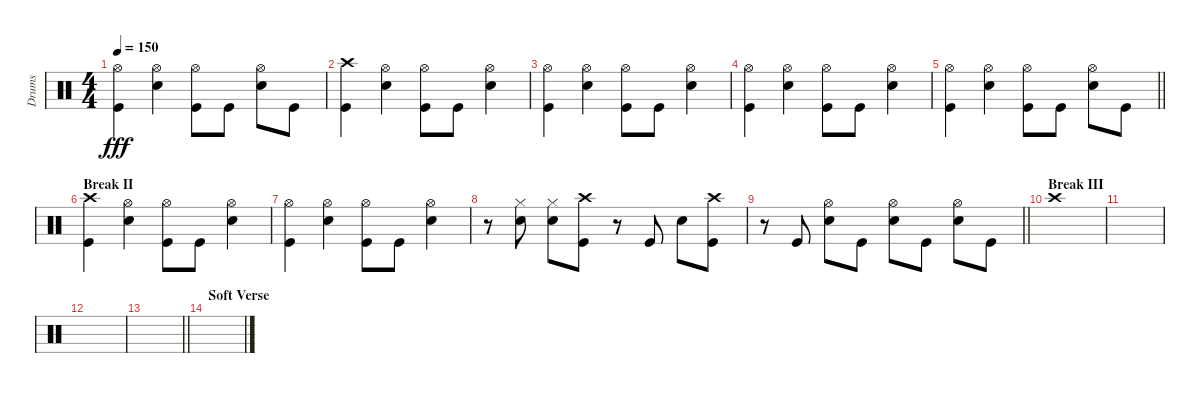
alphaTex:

\track ("Drums" "Drums") {instrument percussion}
\staff {score}
\articulation defaults
\ts (4 4)
\tempo 150
\clef neutral
\ks c
("Hi-Hat (open)" "Kick (hit)").4{dy fff} ("Hi-Hat (open)" "Snare (hit) 2").4 ("Hi-Hat (open)" "Kick (hit)").8 "Kick (hit)".8 ("Hi-Hat (open)" "Snare (hit) 2").8 "Kick (hit)".8 |
("Crash high (hit)" "Kick (hit)").4 ("Hi-Hat (open)" "Snare (hit) 2").4 ("Hi-Hat (open)" "Kick (hit)").8 "Kick (hit)".8 ("Hi-Hat (open)" "Snare (hit) 2").4 |
("Hi-Hat (open)" "Kick (hit)").4 ("Hi-Hat (open)" "Snare (hit) 2").4 ("Hi-Hat (open)" "Kick (hit)").8 "Kick (hit)".8 ("Hi-Hat (open)" "Snare (hit) 2").4 |
("Hi-Hat (open)" "Kick (hit)").4 ("Hi-Hat (open)" "Snare (hit) 2").4 ("Hi-Hat (open)" "Kick (hit)").8 "Kick (hit)".8 ("Hi-Hat (open)" "Snare (hit) 2").4 |
\barLineRight lightlight
("Hi-Hat (open)" "Kick (hit)").4 ("Hi-Hat (open)" "Snare (hit) 2").4 ("Hi-Hat (open)" "Kick (hit)").8 "Kick (hit)".8 ("Hi-Hat (open)" "Snare (hit) 2").8 "Kick (hit)".8 |
\section ("" "Break II")
("Crash high (hit)" "Kick (hit)").4 ("Hi-Hat (open)" "Snare (hit) 2").4 ("Hi-Hat (open)" "Kick (hit)").8 "Kick (hit)".8 ("Hi-Hat (open)" "Snare (hit) 2").4 |
("Hi-Hat (open)" "Kick (hit)").4 ("Hi-Hat (open)" "Snare (hit) 2").4 ("Hi-Hat (open)" "Kick (hit)").8 "Kick (hit)".8 ("Hi-Hat (open)" "Snare (hit) 2").4 |
r.8 ("Hi-Hat (closed)" "Snare (hit) 2").8 ("Hi-Hat (closed)" "Snare (hit) 2").8 ("Crash high (hit)" "Kick (hit)").8 r.8 "Kick (hit)".8 "Snare (hit) 2".8 ("Crash high (hit)" "Kick (hit)").8 |
\barLineRight lightlight
r.8 "Kick (hit)".8 ("Hi-Hat (open)" "Snare (hit) 2").8 "Kick (hit)".8 ("Hi-Hat (open)" "Snare (hit) 2").8 "Kick (hit)".8 ("Hi-Hat (open)" "Snare (hit) 2").8 "Kick (hit)".8 |
\section ("" "Break III")
"Crash high (hit)".1 |
|
|
\barLineRight lightlight
|
\section ("" "Soft Verse")
